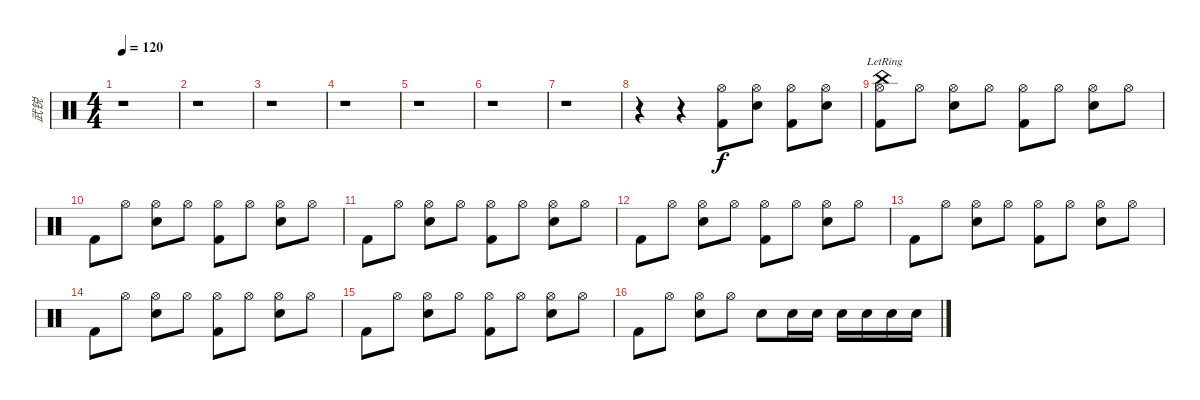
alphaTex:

\track ("武锐" "武锐") {instrument percussion}
\staff {score}
\articulation defaults
\ts (4 4)
\tempo 120
\clef neutral
\ks c
r.1{dy f} |
r.1 |
r.1 |
r.1 |
r.1 |
r.1 |
r.1 |
r.4 r.4 ("Hi-Hat (open)" "Kick (hit) 2").8 ("Hi-Hat (open)" "Snare (hit) 2").8 ("Hi-Hat (open)" "Kick (hit) 2").8 ("Hi-Hat (open)" "Snare (hit) 2").8 |
("Hi-Hat (open)" "Kick (hit) 2" "China (hit)"{lr}).8 "Hi-Hat (open)".8 ("Hi-Hat (open)" "Snare (hit) 2").8 "Hi-Hat (open)".8 ("Hi-Hat (open)" "Kick (hit) 2").8 "Hi-Hat (open)".8 ("Hi-Hat (open)" "Snare (hit) 2").8 "Hi-Hat (open)".8 |
"Kick (hit) 2".8 "Hi-Hat (open)".8 ("Hi-Hat (open)" "Snare (hit) 2").8 "Hi-Hat (open)".8 ("Hi-Hat (open)" "Kick (hit) 2").8 "Hi-Hat (open)".8 ("Hi-Hat (open)" "Snare (hit) 2").8 "Hi-Hat (open)".8 |
"Kick (hit) 2".8 "Hi-Hat (open)".8 ("Hi-Hat (open)" "Snare (hit) 2").8 "Hi-Hat (open)".8 ("Hi-Hat (open)" "Kick (hit) 2").8 "Hi-Hat (open)".8 ("Hi-Hat (open)" "Snare (hit) 2").8 "Hi-Hat (open)".8 |
"Kick (hit) 2".8 "Hi-Hat (open)".8 ("Hi-Hat (open)" "Snare (hit) 2").8 "Hi-Hat (open)".8 ("Hi-Hat (open)" "Kick (hit) 2").8 "Hi-Hat (open)".8 ("Hi-Hat (open)" "Snare (hit) 2").8 "Hi-Hat (open)".8 |
"Kick (hit) 2".8 "Hi-Hat (open)".8 ("Hi-Hat (open)" "Snare (hit) 2").8 "Hi-Hat (open)".8 ("Hi-Hat (open)" "Kick (hit) 2").8 "Hi-Hat (open)".8 ("Hi-Hat (open)" "Snare (hit) 2").8 "Hi-Hat (open)".8 |
"Kick (hit) 2".8 "Hi-Hat (open)".8 ("Hi-Hat (open)" "Snare (hit) 2").8 "Hi-Hat (open)".8 ("Hi-Hat (open)" "Kick (hit) 2").8 "Hi-Hat (open)".8 ("Hi-Hat (open)" "Snare (hit) 2").8 "Hi-Hat (open)".8 |
"Kick (hit) 2".8 "Hi-Hat (open)".8 ("Hi-Hat (open)" "Snare (hit) 2").8 "Hi-Hat (open)".8 ("Hi-Hat (open)" "Kick (hit) 2").8 "Hi-Hat (open)".8 ("Hi-Hat (open)" "Snare (hit) 2").8 "Hi-Hat (open)".8 |
"Kick (hit) 2".8 "Hi-Hat (open)".8 ("Hi-Hat (open)" "Snare (hit) 2").8 "Hi-Hat (open)".8 "Snare (hit) 2".8 "Snare (hit) 2".16 "Snare (hit) 2".16 "Snare (hit) 2".16 "Snare (hit) 2".16 "Snare (hit) 2".16 "Snare (hit) 2".16
